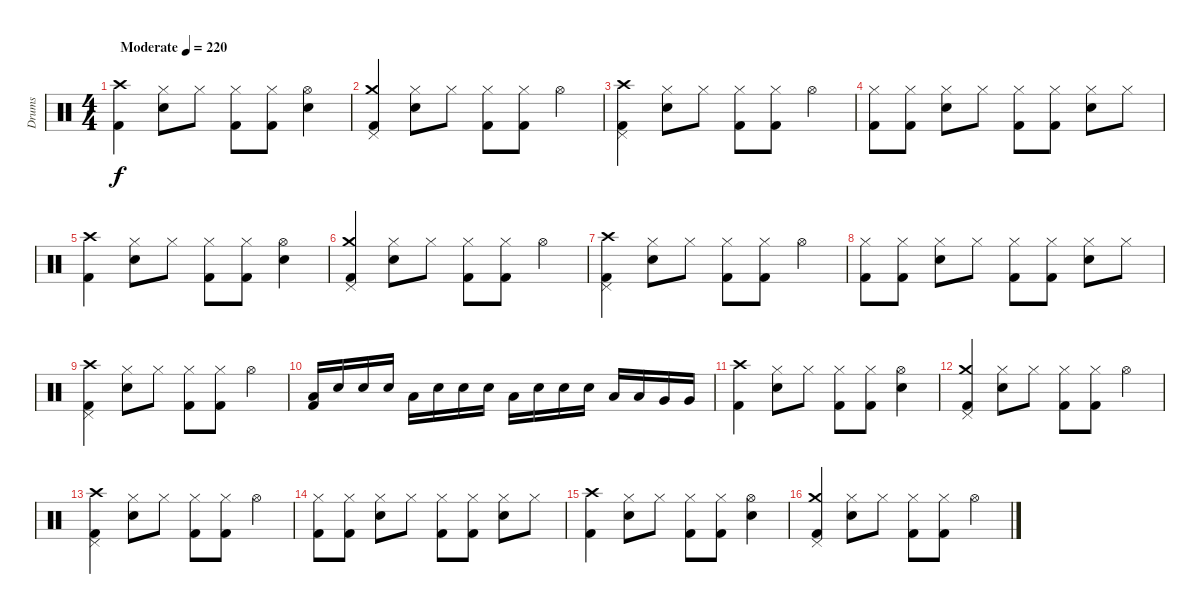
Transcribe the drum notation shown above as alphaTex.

\track ("Drums" "Drums") {instrument percussion}
\staff {score}
\articulation defaults
\ts (4 4)
\tempo (220 "Moderate")
\clef neutral
\ks c
("Crash high (hit)" "Kick (hit) 2").4{dy f} ("Hi-Hat (closed)" "Snare (hit) 2").8 "Hi-Hat (closed)".8 ("Hi-Hat (closed)" "Kick (hit) 2").8 ("Hi-Hat (closed)" "Kick (hit) 2").8 ("Hi-Hat (open)" "Snare (hit) 2").4 |
("Crash medium (hit)" "Pedal Hi-Hat (hit)" "Kick (hit) 2").4 ("Hi-Hat (closed)" "Snare (hit) 2").8 "Hi-Hat (closed)".8 ("Hi-Hat (closed)" "Kick (hit) 2").8 ("Hi-Hat (closed)" "Kick (hit) 2").8 "Hi-Hat (open)".4 |
("Crash high (hit)" "Pedal Hi-Hat (hit)" "Kick (hit) 2").4 ("Hi-Hat (closed)" "Snare (hit) 2").8 "Hi-Hat (closed)".8 ("Hi-Hat (closed)" "Kick (hit) 2").8 ("Hi-Hat (closed)" "Kick (hit) 2").8 "Hi-Hat (open)".4 |
("Hi-Hat (closed)" "Kick (hit) 2").8 ("Hi-Hat (closed)" "Kick (hit) 2").8 ("Hi-Hat (closed)" "Snare (hit) 2").8 "Hi-Hat (closed)".8 ("Hi-Hat (closed)" "Kick (hit) 2").8 ("Hi-Hat (closed)" "Kick (hit) 2").8 ("Hi-Hat (closed)" "Snare (hit) 2").8 "Hi-Hat (closed)".8 |
("Crash high (hit)" "Kick (hit) 2").4 ("Hi-Hat (closed)" "Snare (hit) 2").8 "Hi-Hat (closed)".8 ("Hi-Hat (closed)" "Kick (hit) 2").8 ("Hi-Hat (closed)" "Kick (hit) 2").8 ("Hi-Hat (open)" "Snare (hit) 2").4 |
("Crash medium (hit)" "Pedal Hi-Hat (hit)" "Kick (hit) 2").4 ("Hi-Hat (closed)" "Snare (hit) 2").8 "Hi-Hat (closed)".8 ("Hi-Hat (closed)" "Kick (hit) 2").8 ("Hi-Hat (closed)" "Kick (hit) 2").8 "Hi-Hat (open)".4 |
("Crash high (hit)" "Pedal Hi-Hat (hit)" "Kick (hit) 2").4 ("Hi-Hat (closed)" "Snare (hit) 2").8 "Hi-Hat (closed)".8 ("Hi-Hat (closed)" "Kick (hit) 2").8 ("Hi-Hat (closed)" "Kick (hit) 2").8 "Hi-Hat (open)".4 |
("Hi-Hat (closed)" "Kick (hit) 2").8 ("Hi-Hat (closed)" "Kick (hit) 2").8 ("Hi-Hat (closed)" "Snare (hit) 2").8 "Hi-Hat (closed)".8 ("Hi-Hat (closed)" "Kick (hit) 2").8 ("Hi-Hat (closed)" "Kick (hit) 2").8 ("Hi-Hat (closed)" "Snare (hit) 2").8 "Hi-Hat (closed)".8 |
("Crash high (hit)" "Pedal Hi-Hat (hit)" "Kick (hit) 2").4 ("Hi-Hat (closed)" "Snare (hit) 2").8 "Hi-Hat (closed)".8 ("Hi-Hat (closed)" "Kick (hit) 2").8 ("Hi-Hat (closed)" "Kick (hit) 2").8 "Hi-Hat (open)".4 |
("Low Tom (hit)" "Kick (hit) 2").16 "Snare (hit) 2".16 "Snare (hit) 2".16 "Snare (hit) 2".16 "Low Tom (hit)".16 "Snare (hit) 2".16 "Snare (hit) 2".16 "Snare (hit) 2".16 "Low Tom (hit)".16 "Snare (hit) 2".16 "Snare (hit) 2".16 "Snare (hit) 2".16 "Low Tom (hit)".16 "Low Tom (hit)".16 "Very Low Tom (hit)".16 "Very Low Tom (hit)".16 |
("Crash high (hit)" "Kick (hit) 2").4 ("Hi-Hat (closed)" "Snare (hit) 2").8 "Hi-Hat (closed)".8 ("Hi-Hat (closed)" "Kick (hit) 2").8 ("Hi-Hat (closed)" "Kick (hit) 2").8 ("Hi-Hat (open)" "Snare (hit) 2").4 |
("Crash medium (hit)" "Pedal Hi-Hat (hit)" "Kick (hit) 2").4 ("Hi-Hat (closed)" "Snare (hit) 2").8 "Hi-Hat (closed)".8 ("Hi-Hat (closed)" "Kick (hit) 2").8 ("Hi-Hat (closed)" "Kick (hit) 2").8 "Hi-Hat (open)".4 |
("Crash high (hit)" "Pedal Hi-Hat (hit)" "Kick (hit) 2").4 ("Hi-Hat (closed)" "Snare (hit) 2").8 "Hi-Hat (closed)".8 ("Hi-Hat (closed)" "Kick (hit) 2").8 ("Hi-Hat (closed)" "Kick (hit) 2").8 "Hi-Hat (open)".4 |
("Hi-Hat (closed)" "Kick (hit) 2").8 ("Hi-Hat (closed)" "Kick (hit) 2").8 ("Hi-Hat (closed)" "Snare (hit) 2").8 "Hi-Hat (closed)".8 ("Hi-Hat (closed)" "Kick (hit) 2").8 ("Hi-Hat (closed)" "Kick (hit) 2").8 ("Hi-Hat (closed)" "Snare (hit) 2").8 "Hi-Hat (closed)".8 |
("Crash high (hit)" "Kick (hit) 2").4 ("Hi-Hat (closed)" "Snare (hit) 2").8 "Hi-Hat (closed)".8 ("Hi-Hat (closed)" "Kick (hit) 2").8 ("Hi-Hat (closed)" "Kick (hit) 2").8 ("Hi-Hat (open)" "Snare (hit) 2").4 |
("Crash medium (hit)" "Pedal Hi-Hat (hit)" "Kick (hit) 2").4 ("Hi-Hat (closed)" "Snare (hit) 2").8 "Hi-Hat (closed)".8 ("Hi-Hat (closed)" "Kick (hit) 2").8 ("Hi-Hat (closed)" "Kick (hit) 2").8 "Hi-Hat (open)".4
